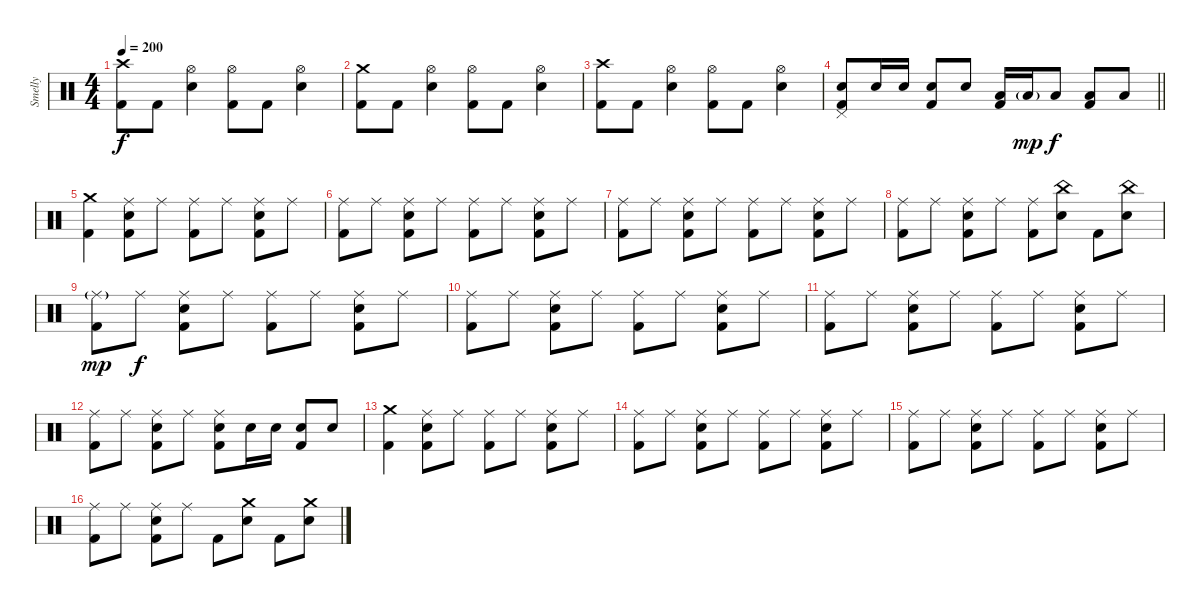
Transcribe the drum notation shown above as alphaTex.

\track ("Smelly" "Smelly") {instrument percussion}
\staff {score}
\articulation defaults
\ts (4 4)
\tempo 200
\clef neutral
\ks c
("Crash high (hit)" "Kick (hit) 2").8{dy f} "Kick (hit) 2".8 ("Hi-Hat (open)" "Electric Snare (hit)").4 ("Hi-Hat (open)" "Kick (hit) 2").8 "Kick (hit) 2".8 ("Hi-Hat (open)" "Electric Snare (hit)").4 |
("Crash medium (hit)" "Kick (hit) 2").8 "Kick (hit) 2".8 ("Hi-Hat (open)" "Electric Snare (hit)").4 ("Hi-Hat (open)" "Kick (hit) 2").8 "Kick (hit) 2".8 ("Hi-Hat (open)" "Electric Snare (hit)").4 |
("Crash high (hit)" "Kick (hit) 2").8 "Kick (hit) 2".8 ("Hi-Hat (open)" "Electric Snare (hit)").4 ("Hi-Hat (open)" "Kick (hit) 2").8 "Kick (hit) 2".8 ("Hi-Hat (open)" "Electric Snare (hit)").4 |
\barLineRight lightlight
("Pedal Hi-Hat (hit)" "Electric Snare (hit)" "Kick (hit) 2").8 "Electric Snare (hit)".16 "Electric Snare (hit)".16 ("Electric Snare (hit)" "Kick (hit) 2").8 "Electric Snare (hit)".8 ("Low Tom (hit)" "Kick (hit) 2").16 "Low Tom (hit)"{g}.16{dy mp} "Low Tom (hit)".8{dy f} ("Low Floor Tom (hit)" "Kick (hit) 2").8 "Low Floor Tom (hit)".8 |
\section ("" "")
("Crash medium (hit)" "Kick (hit) 2").4 ("Ride (middle)" "Electric Snare (hit)" "Kick (hit) 2").8 "Ride (middle)".8 ("Ride (middle)" "Kick (hit) 2").8 "Ride (middle)".8 ("Ride (middle)" "Electric Snare (hit)" "Kick (hit) 2").8 "Ride (middle)".8 |
("Ride (middle)" "Kick (hit) 2").8 "Ride (middle)".8 ("Ride (middle)" "Electric Snare (hit)" "Kick (hit) 2").8 "Ride (middle)".8 ("Ride (middle)" "Kick (hit) 2").8 "Ride (middle)".8 ("Ride (middle)" "Electric Snare (hit)" "Kick (hit) 2").8 "Ride (middle)".8 |
("Ride (middle)" "Kick (hit) 2").8 "Ride (middle)".8 ("Ride (middle)" "Electric Snare (hit)" "Kick (hit) 2").8 "Ride (middle)".8 ("Ride (middle)" "Kick (hit) 2").8 "Ride (middle)".8 ("Ride (middle)" "Electric Snare (hit)" "Kick (hit) 2").8 "Ride (middle)".8 |
("Ride (middle)" "Kick (hit) 2").8 "Ride (middle)".8 ("Ride (middle)" "Electric Snare (hit)" "Kick (hit) 2").8 "Ride (middle)".8 ("Ride (middle)" "Kick (hit) 2").8 ("China (hit)" "Electric Snare (hit)").8 "Kick (hit) 2".8 ("China (hit)" "Electric Snare (hit)").8 |
("Ride (middle)"{g} "Kick (hit) 2").8{dy mp} "Ride (middle)".8{dy f} ("Ride (middle)" "Electric Snare (hit)" "Kick (hit) 2").8 "Ride (middle)".8 ("Ride (middle)" "Kick (hit) 2").8 "Ride (middle)".8 ("Ride (middle)" "Electric Snare (hit)" "Kick (hit) 2").8 "Ride (middle)".8 |
("Ride (middle)" "Kick (hit) 2").8 "Ride (middle)".8 ("Ride (middle)" "Electric Snare (hit)" "Kick (hit) 2").8 "Ride (middle)".8 ("Ride (middle)" "Kick (hit) 2").8 "Ride (middle)".8 ("Ride (middle)" "Electric Snare (hit)" "Kick (hit) 2").8 "Ride (middle)".8 |
("Ride (middle)" "Kick (hit) 2").8 "Ride (middle)".8 ("Ride (middle)" "Electric Snare (hit)" "Kick (hit) 2").8 "Ride (middle)".8 ("Ride (middle)" "Kick (hit) 2").8 "Ride (middle)".8 ("Ride (middle)" "Electric Snare (hit)" "Kick (hit) 2").8 "Ride (middle)".8 |
("Ride (middle)" "Kick (hit) 2").8 "Ride (middle)".8 ("Ride (middle)" "Electric Snare (hit)" "Kick (hit) 2").8 "Ride (middle)".8 ("Ride (middle)" "Electric Snare (hit)" "Kick (hit) 2").8 "Electric Snare (hit)".16 "Electric Snare (hit)".16 ("Electric Snare (hit)" "Kick (hit) 2").8 "Electric Snare (hit)".8 |
("Crash medium (hit)" "Kick (hit) 2").4 ("Ride (middle)" "Electric Snare (hit)" "Kick (hit) 2").8 "Ride (middle)".8 ("Ride (middle)" "Kick (hit) 2").8 "Ride (middle)".8 ("Ride (middle)" "Electric Snare (hit)" "Kick (hit) 2").8 "Ride (middle)".8 |
("Ride (middle)" "Kick (hit) 2").8 "Ride (middle)".8 ("Ride (middle)" "Electric Snare (hit)" "Kick (hit) 2").8 "Ride (middle)".8 ("Ride (middle)" "Kick (hit) 2").8 "Ride (middle)".8 ("Ride (middle)" "Electric Snare (hit)" "Kick (hit) 2").8 "Ride (middle)".8 |
("Ride (middle)" "Kick (hit) 2").8 "Ride (middle)".8 ("Ride (middle)" "Electric Snare (hit)" "Kick (hit) 2").8 "Ride (middle)".8 ("Ride (middle)" "Kick (hit) 2").8 "Ride (middle)".8 ("Ride (middle)" "Electric Snare (hit)" "Kick (hit) 2").8 "Ride (middle)".8 |
("Ride (middle)" "Kick (hit) 2").8 "Ride (middle)".8 ("Ride (middle)" "Electric Snare (hit)" "Kick (hit) 2").8 "Ride (middle)".8 "Kick (hit) 2".8 ("Crash medium (hit)" "Electric Snare (hit)").8 "Kick (hit) 2".8 ("Crash medium (hit)" "Electric Snare (hit)").8
